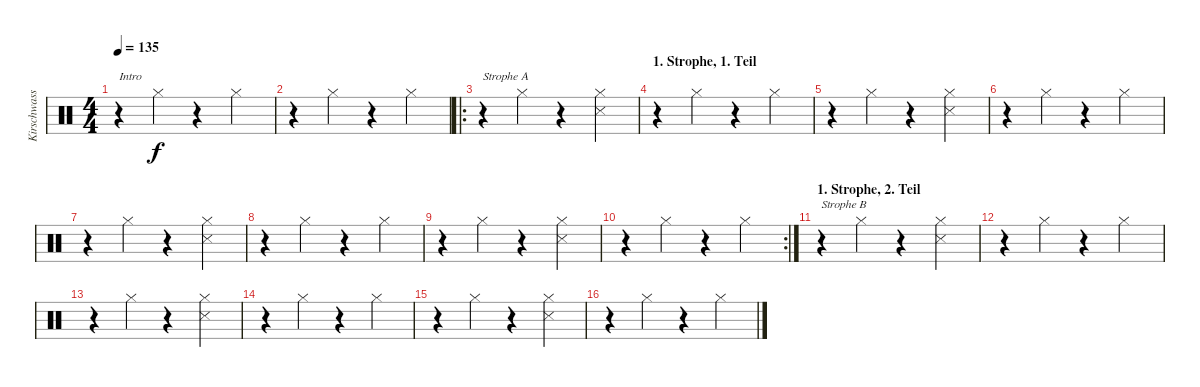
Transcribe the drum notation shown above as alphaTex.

\track ("Kirschwasserkönig" "Kirschwass") {instrument percussion}
\staff {score}
\articulation defaults
\ts (4 4)
\tempo 135
\clef neutral
\ks c
r.4{txt "Intro" dy f} "Hi-Hat (closed)".4 r.4 "Hi-Hat (closed)".4 |
r.4 "Hi-Hat (closed)".4 r.4 "Hi-Hat (closed)".4 |
\ro
r.4{txt "Strophe A"} "Hi-Hat (closed)".4 r.4 ("Hi-Hat (closed)" "Snare (side stick) 3").4 |
\section ("" "1. Strophe, 1. Teil")
r.4 "Hi-Hat (closed)".4 r.4 "Hi-Hat (closed)".4 |
r.4 "Hi-Hat (closed)".4 r.4 ("Hi-Hat (closed)" "Snare (side stick) 3").4 |
r.4 "Hi-Hat (closed)".4 r.4 "Hi-Hat (closed)".4 |
r.4 "Hi-Hat (closed)".4 r.4 ("Hi-Hat (closed)" "Snare (side stick) 3").4 |
r.4 "Hi-Hat (closed)".4 r.4 "Hi-Hat (closed)".4 |
r.4 "Hi-Hat (closed)".4 r.4 ("Hi-Hat (closed)" "Snare (side stick) 3").4 |
\rc 2
r.4 "Hi-Hat (closed)".4 r.4 "Hi-Hat (closed)".4 |
\section ("" "1. Strophe, 2. Teil")
r.4{txt "Strophe B"} "Hi-Hat (closed)".4 r.4 ("Hi-Hat (closed)" "Snare (side stick) 3").4 |
r.4 "Hi-Hat (closed)".4 r.4 "Hi-Hat (closed)".4 |
r.4 "Hi-Hat (closed)".4 r.4 ("Hi-Hat (closed)" "Snare (side stick) 3").4 |
r.4 "Hi-Hat (closed)".4 r.4 "Hi-Hat (closed)".4 |
r.4 "Hi-Hat (closed)".4 r.4 ("Hi-Hat (closed)" "Snare (side stick) 3").4 |
r.4 "Hi-Hat (closed)".4 r.4 "Hi-Hat (closed)".4
